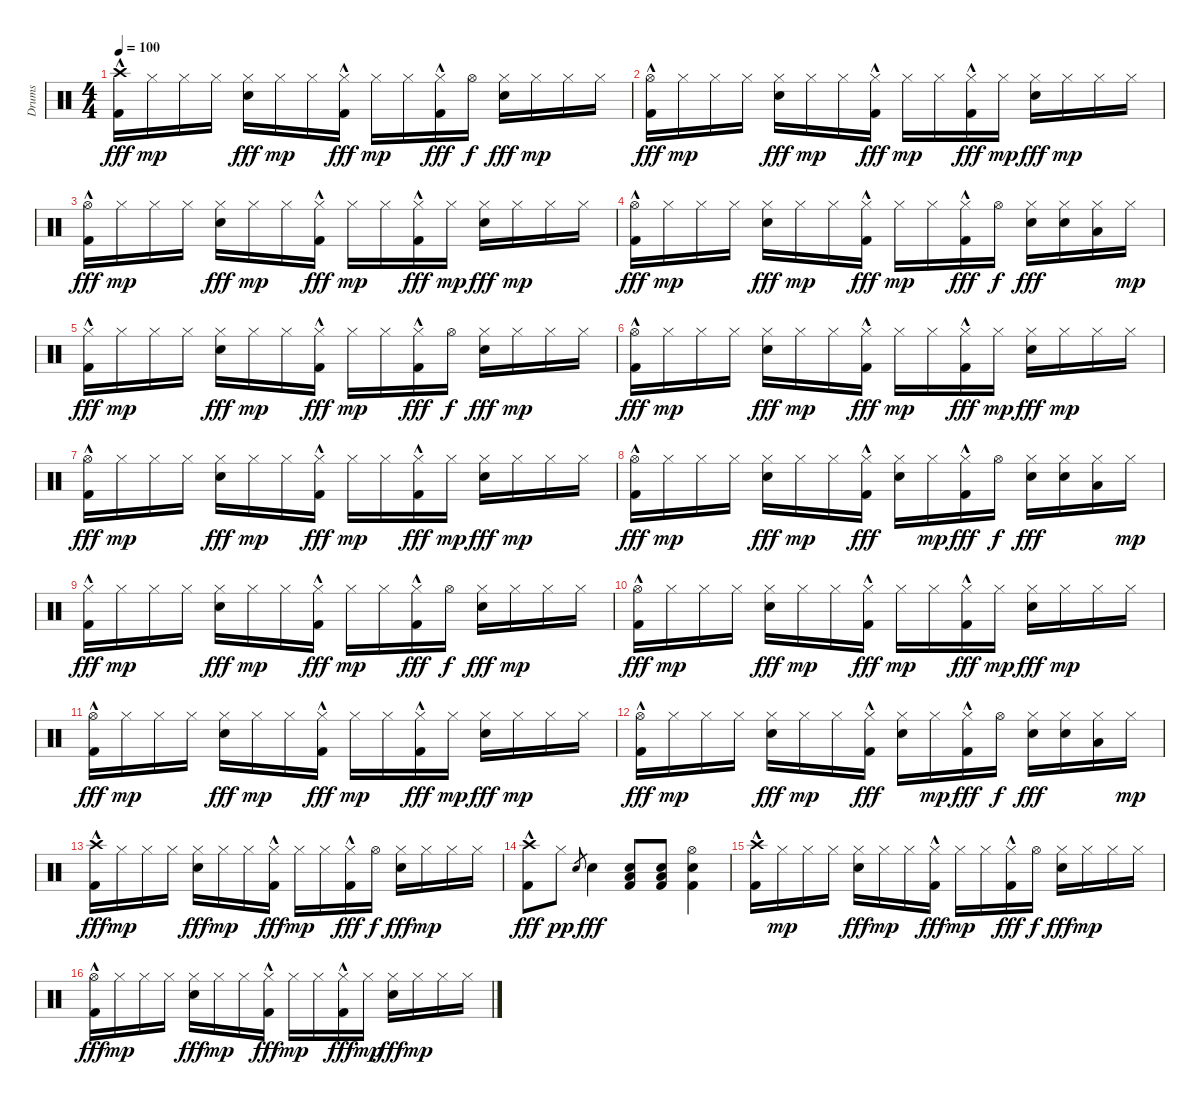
\track ("Drums" "Drums") {instrument percussion}
\staff {score}
\articulation defaults
\ts (4 4)
\tempo 100
\clef neutral
\ks c
("Crash high (hit)" "Kick (hit) 2"{hac}).16{dy fff} "Hi-Hat (closed)".16{dy mp} "Hi-Hat (closed)".16 "Hi-Hat (closed)".16 ("Hi-Hat (closed)" "Snare (hit) 2").16{dy fff} "Hi-Hat (closed)".16{dy mp} "Hi-Hat (closed)".16 ("Hi-Hat (closed)" "Kick (hit) 2"{hac}).16{dy fff} "Hi-Hat (closed)".16{dy mp} "Hi-Hat (closed)".16 ("Hi-Hat (closed)" "Kick (hit) 2"{hac}).16{dy fff} "Hi-Hat (open)".16{dy f} ("Hi-Hat (closed)" "Snare (hit) 2").16{dy fff} "Hi-Hat (closed)".16{dy mp} "Hi-Hat (closed)".16 "Hi-Hat (closed)".16 |
("Hi-Hat (open)" "Kick (hit) 2"{hac}).16{dy fff} "Hi-Hat (closed)".16{dy mp} "Hi-Hat (closed)".16 "Hi-Hat (closed)".16 ("Hi-Hat (closed)" "Snare (hit) 2").16{dy fff} "Hi-Hat (closed)".16{dy mp} "Hi-Hat (closed)".16 ("Hi-Hat (closed)" "Kick (hit) 2"{hac}).16{dy fff} "Hi-Hat (closed)".16{dy mp} "Hi-Hat (closed)".16 ("Hi-Hat (closed)" "Kick (hit) 2"{hac}).16{dy fff} "Hi-Hat (closed)".16{dy mp} ("Hi-Hat (closed)" "Snare (hit) 2").16{dy fff} "Hi-Hat (closed)".16{dy mp} "Hi-Hat (closed)".16 "Hi-Hat (closed)".16 |
("Hi-Hat (open)" "Kick (hit) 2"{hac}).16{dy fff} "Hi-Hat (closed)".16{dy mp} "Hi-Hat (closed)".16 "Hi-Hat (closed)".16 ("Hi-Hat (closed)" "Snare (hit) 2").16{dy fff} "Hi-Hat (closed)".16{dy mp} "Hi-Hat (closed)".16 ("Hi-Hat (closed)" "Kick (hit) 2"{hac}).16{dy fff} "Hi-Hat (closed)".16{dy mp} "Hi-Hat (closed)".16 ("Hi-Hat (closed)" "Kick (hit) 2"{hac}).16{dy fff} "Hi-Hat (closed)".16{dy mp} ("Hi-Hat (closed)" "Snare (hit) 2").16{dy fff} "Hi-Hat (closed)".16{dy mp} "Hi-Hat (closed)".16 "Hi-Hat (closed)".16 |
("Hi-Hat (open)" "Kick (hit) 2"{hac}).16{dy fff} "Hi-Hat (closed)".16{dy mp} "Hi-Hat (closed)".16 "Hi-Hat (closed)".16 ("Hi-Hat (closed)" "Snare (hit) 2").16{dy fff} "Hi-Hat (closed)".16{dy mp} "Hi-Hat (closed)".16 ("Hi-Hat (closed)" "Kick (hit) 2"{hac}).16{dy fff} "Hi-Hat (closed)".16{dy mp} "Hi-Hat (closed)".16 ("Hi-Hat (closed)" "Kick (hit) 2"{hac}).16{dy fff} "Hi-Hat (open)".16{dy f} ("Hi-Hat (closed)" "Snare (hit) 2").16{dy fff} ("Hi-Hat (closed)" "Snare (hit) 2").16 ("Hi-Hat (closed)" "Low Floor Tom (hit)").16 "Hi-Hat (closed)".16{dy mp} |
("Hi-Hat (closed)" "Kick (hit) 2"{hac}).16{dy fff} "Hi-Hat (closed)".16{dy mp} "Hi-Hat (closed)".16 "Hi-Hat (closed)".16 ("Hi-Hat (closed)" "Snare (hit) 2").16{dy fff} "Hi-Hat (closed)".16{dy mp} "Hi-Hat (closed)".16 ("Hi-Hat (closed)" "Kick (hit) 2"{hac}).16{dy fff} "Hi-Hat (closed)".16{dy mp} "Hi-Hat (closed)".16 ("Hi-Hat (closed)" "Kick (hit) 2"{hac}).16{dy fff} "Hi-Hat (open)".16{dy f} ("Hi-Hat (closed)" "Snare (hit) 2").16{dy fff} "Hi-Hat (closed)".16{dy mp} "Hi-Hat (closed)".16 "Hi-Hat (closed)".16 |
("Hi-Hat (open)" "Kick (hit) 2"{hac}).16{dy fff} "Hi-Hat (closed)".16{dy mp} "Hi-Hat (closed)".16 "Hi-Hat (closed)".16 ("Hi-Hat (closed)" "Snare (hit) 2").16{dy fff} "Hi-Hat (closed)".16{dy mp} "Hi-Hat (closed)".16 ("Hi-Hat (closed)" "Kick (hit) 2"{hac}).16{dy fff} "Hi-Hat (closed)".16{dy mp} "Hi-Hat (closed)".16 ("Hi-Hat (closed)" "Kick (hit) 2"{hac}).16{dy fff} "Hi-Hat (closed)".16{dy mp} ("Hi-Hat (closed)" "Snare (hit) 2").16{dy fff} "Hi-Hat (closed)".16{dy mp} "Hi-Hat (closed)".16 "Hi-Hat (closed)".16 |
("Hi-Hat (open)" "Kick (hit) 2"{hac}).16{dy fff} "Hi-Hat (closed)".16{dy mp} "Hi-Hat (closed)".16 "Hi-Hat (closed)".16 ("Hi-Hat (closed)" "Snare (hit) 2").16{dy fff} "Hi-Hat (closed)".16{dy mp} "Hi-Hat (closed)".16 ("Hi-Hat (closed)" "Kick (hit) 2"{hac}).16{dy fff} "Hi-Hat (closed)".16{dy mp} "Hi-Hat (closed)".16 ("Hi-Hat (closed)" "Kick (hit) 2"{hac}).16{dy fff} "Hi-Hat (closed)".16{dy mp} ("Hi-Hat (closed)" "Snare (hit) 2").16{dy fff} "Hi-Hat (closed)".16{dy mp} "Hi-Hat (closed)".16 "Hi-Hat (closed)".16 |
("Hi-Hat (open)" "Kick (hit) 2"{hac}).16{dy fff} "Hi-Hat (closed)".16{dy mp} "Hi-Hat (closed)".16 "Hi-Hat (closed)".16 ("Hi-Hat (closed)" "Snare (hit) 2").16{dy fff} "Hi-Hat (closed)".16{dy mp} "Hi-Hat (closed)".16 ("Hi-Hat (closed)" "Kick (hit) 2"{hac}).16{dy fff} ("Hi-Hat (closed)" "Snare (hit) 2").16 "Hi-Hat (closed)".16{dy mp} ("Hi-Hat (closed)" "Kick (hit) 2"{hac}).16{dy fff} "Hi-Hat (open)".16{dy f} ("Hi-Hat (closed)" "Snare (hit) 2").16{dy fff} ("Hi-Hat (closed)" "Snare (hit) 2").16 ("Hi-Hat (closed)" "Low Floor Tom (hit)").16 "Hi-Hat (closed)".16{dy mp} |
("Hi-Hat (closed)" "Kick (hit) 2"{hac}).16{dy fff} "Hi-Hat (closed)".16{dy mp} "Hi-Hat (closed)".16 "Hi-Hat (closed)".16 ("Hi-Hat (closed)" "Snare (hit) 2").16{dy fff} "Hi-Hat (closed)".16{dy mp} "Hi-Hat (closed)".16 ("Hi-Hat (closed)" "Kick (hit) 2"{hac}).16{dy fff} "Hi-Hat (closed)".16{dy mp} "Hi-Hat (closed)".16 ("Hi-Hat (closed)" "Kick (hit) 2"{hac}).16{dy fff} "Hi-Hat (open)".16{dy f} ("Hi-Hat (closed)" "Snare (hit) 2").16{dy fff} "Hi-Hat (closed)".16{dy mp} "Hi-Hat (closed)".16 "Hi-Hat (closed)".16 |
("Hi-Hat (open)" "Kick (hit) 2"{hac}).16{dy fff} "Hi-Hat (closed)".16{dy mp} "Hi-Hat (closed)".16 "Hi-Hat (closed)".16 ("Hi-Hat (closed)" "Snare (hit) 2").16{dy fff} "Hi-Hat (closed)".16{dy mp} "Hi-Hat (closed)".16 ("Hi-Hat (closed)" "Kick (hit) 2"{hac}).16{dy fff} "Hi-Hat (closed)".16{dy mp} "Hi-Hat (closed)".16 ("Hi-Hat (closed)" "Kick (hit) 2"{hac}).16{dy fff} "Hi-Hat (closed)".16{dy mp} ("Hi-Hat (closed)" "Snare (hit) 2").16{dy fff} "Hi-Hat (closed)".16{dy mp} "Hi-Hat (closed)".16 "Hi-Hat (closed)".16 |
("Hi-Hat (open)" "Kick (hit) 2"{hac}).16{dy fff} "Hi-Hat (closed)".16{dy mp} "Hi-Hat (closed)".16 "Hi-Hat (closed)".16 ("Hi-Hat (closed)" "Snare (hit) 2").16{dy fff} "Hi-Hat (closed)".16{dy mp} "Hi-Hat (closed)".16 ("Hi-Hat (closed)" "Kick (hit) 2"{hac}).16{dy fff} "Hi-Hat (closed)".16{dy mp} "Hi-Hat (closed)".16 ("Hi-Hat (closed)" "Kick (hit) 2"{hac}).16{dy fff} "Hi-Hat (closed)".16{dy mp} ("Hi-Hat (closed)" "Snare (hit) 2").16{dy fff} "Hi-Hat (closed)".16{dy mp} "Hi-Hat (closed)".16 "Hi-Hat (closed)".16 |
("Hi-Hat (open)" "Kick (hit) 2"{hac}).16{dy fff} "Hi-Hat (closed)".16{dy mp} "Hi-Hat (closed)".16 "Hi-Hat (closed)".16 ("Hi-Hat (closed)" "Snare (hit) 2").16{dy fff} "Hi-Hat (closed)".16{dy mp} "Hi-Hat (closed)".16 ("Hi-Hat (closed)" "Kick (hit) 2"{hac}).16{dy fff} ("Hi-Hat (closed)" "Snare (hit) 2").16 "Hi-Hat (closed)".16{dy mp} ("Hi-Hat (closed)" "Kick (hit) 2"{hac}).16{dy fff} "Hi-Hat (open)".16{dy f} ("Hi-Hat (closed)" "Snare (hit) 2").16{dy fff} ("Hi-Hat (closed)" "Snare (hit) 2").16 ("Hi-Hat (closed)" "Low Floor Tom (hit)").16 "Hi-Hat (closed)".16{dy mp} |
("Crash high (hit)" "Kick (hit) 2"{hac}).16{dy fff} "Hi-Hat (closed)".16{dy mp} "Hi-Hat (closed)".16 "Hi-Hat (closed)".16 ("Hi-Hat (closed)" "Snare (hit) 2").16{dy fff} "Hi-Hat (closed)".16{dy mp} "Hi-Hat (closed)".16 ("Hi-Hat (closed)" "Kick (hit) 2"{hac}).16{dy fff} "Hi-Hat (closed)".16{dy mp} "Hi-Hat (closed)".16 ("Hi-Hat (closed)" "Kick (hit) 2"{hac}).16{dy fff} "Hi-Hat (open)".16{dy f} ("Hi-Hat (closed)" "Snare (hit) 2").16{dy fff} "Hi-Hat (closed)".16{dy mp} "Hi-Hat (closed)".16 "Hi-Hat (closed)".16 |
("Crash high (hit)" "Kick (hit) 2"{hac}).8{dy fff} "Hi-Hat (closed)".8{dy pp} "Snare (hit) 2".8{gr} "Snare (hit) 2".4{dy fff} ("Snare (hit) 2" "Low Floor Tom (hit)" "Kick (hit) 2").8 ("Snare (hit) 2" "Low Floor Tom (hit)" "Kick (hit) 2").8 ("Hi-Hat (open)" "Snare (hit) 2" "Kick (hit) 2").4 |
("Crash high (hit)" "Kick (hit) 2"{hac}).16 "Hi-Hat (closed)".16{dy mp} "Hi-Hat (closed)".16 "Hi-Hat (closed)".16 ("Hi-Hat (closed)" "Snare (hit) 2").16{dy fff} "Hi-Hat (closed)".16{dy mp} "Hi-Hat (closed)".16 ("Hi-Hat (closed)" "Kick (hit) 2"{hac}).16{dy fff} "Hi-Hat (closed)".16{dy mp} "Hi-Hat (closed)".16 ("Hi-Hat (closed)" "Kick (hit) 2"{hac}).16{dy fff} "Hi-Hat (open)".16{dy f} ("Hi-Hat (closed)" "Snare (hit) 2").16{dy fff} "Hi-Hat (closed)".16{dy mp} "Hi-Hat (closed)".16 "Hi-Hat (closed)".16 |
("Hi-Hat (open)" "Kick (hit) 2"{hac}).16{dy fff} "Hi-Hat (closed)".16{dy mp} "Hi-Hat (closed)".16 "Hi-Hat (closed)".16 ("Hi-Hat (closed)" "Snare (hit) 2").16{dy fff} "Hi-Hat (closed)".16{dy mp} "Hi-Hat (closed)".16 ("Hi-Hat (closed)" "Kick (hit) 2"{hac}).16{dy fff} "Hi-Hat (closed)".16{dy mp} "Hi-Hat (closed)".16 ("Hi-Hat (closed)" "Kick (hit) 2"{hac}).16{dy fff} "Hi-Hat (closed)".16{dy mp} ("Hi-Hat (closed)" "Snare (hit) 2").16{dy fff} "Hi-Hat (closed)".16{dy mp} "Hi-Hat (closed)".16 "Hi-Hat (closed)".16
